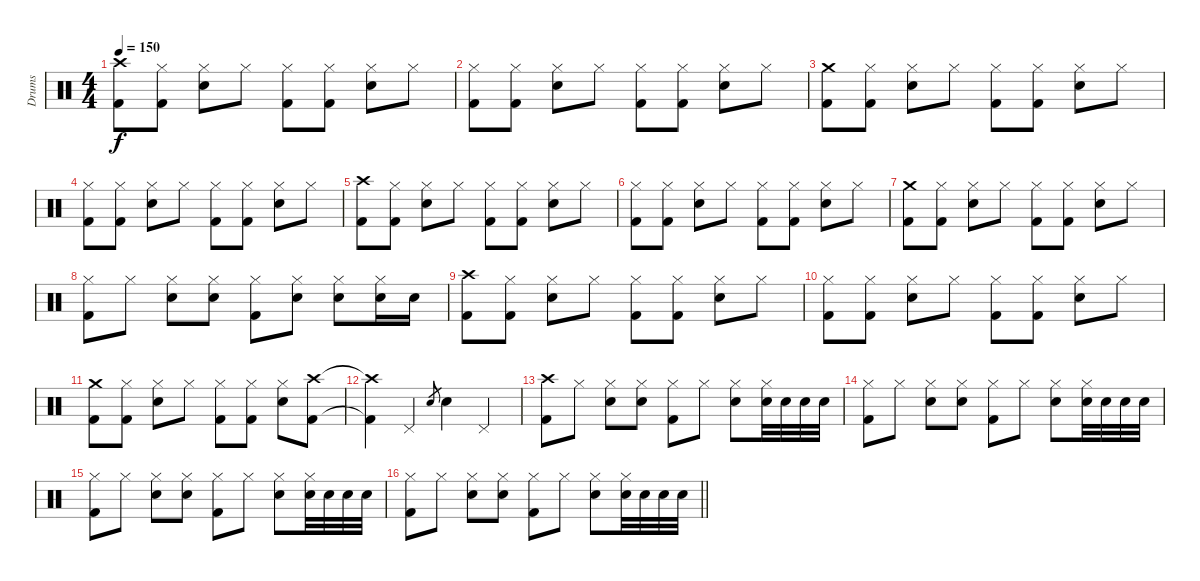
\track ("Drums" "Drums") {instrument percussion}
\staff {score}
\articulation defaults
\ts (4 4)
\tempo 150
\clef neutral
\ks c
("Kick (hit) 2" "Crash high (hit)").8{dy f} ("Kick (hit) 2" "Hi-Hat (closed)").8 ("Hi-Hat (closed)" "Snare (hit) 2").8 "Hi-Hat (closed)".8 ("Kick (hit) 2" "Hi-Hat (closed)").8 ("Kick (hit) 2" "Hi-Hat (closed)").8 ("Hi-Hat (closed)" "Snare (hit) 2").8 "Hi-Hat (closed)".8 |
("Kick (hit) 2" "Hi-Hat (closed)").8 ("Kick (hit) 2" "Hi-Hat (closed)").8 ("Hi-Hat (closed)" "Snare (hit) 2").8 "Hi-Hat (closed)".8 ("Kick (hit) 2" "Hi-Hat (closed)").8 ("Kick (hit) 2" "Hi-Hat (closed)").8 ("Hi-Hat (closed)" "Snare (hit) 2").8 "Hi-Hat (closed)".8 |
("Kick (hit) 2" "Crash medium (hit)").8 ("Kick (hit) 2" "Hi-Hat (closed)").8 ("Hi-Hat (closed)" "Snare (hit) 2").8 "Hi-Hat (closed)".8 ("Kick (hit) 2" "Hi-Hat (closed)").8 ("Kick (hit) 2" "Hi-Hat (closed)").8 ("Hi-Hat (closed)" "Snare (hit) 2").8 "Hi-Hat (closed)".8 |
("Kick (hit) 2" "Hi-Hat (closed)").8 ("Kick (hit) 2" "Hi-Hat (closed)").8 ("Hi-Hat (closed)" "Snare (hit) 2").8 "Hi-Hat (closed)".8 ("Kick (hit) 2" "Hi-Hat (closed)").8 ("Kick (hit) 2" "Hi-Hat (closed)").8 ("Hi-Hat (closed)" "Snare (hit) 2").8 "Hi-Hat (closed)".8 |
("Kick (hit) 2" "Crash high (hit)").8 ("Kick (hit) 2" "Hi-Hat (closed)").8 ("Hi-Hat (closed)" "Snare (hit) 2").8 "Hi-Hat (closed)".8 ("Kick (hit) 2" "Hi-Hat (closed)").8 ("Kick (hit) 2" "Hi-Hat (closed)").8 ("Hi-Hat (closed)" "Snare (hit) 2").8 "Hi-Hat (closed)".8 |
("Kick (hit) 2" "Hi-Hat (closed)").8 ("Kick (hit) 2" "Hi-Hat (closed)").8 ("Hi-Hat (closed)" "Snare (hit) 2").8 "Hi-Hat (closed)".8 ("Kick (hit) 2" "Hi-Hat (closed)").8 ("Kick (hit) 2" "Hi-Hat (closed)").8 ("Hi-Hat (closed)" "Snare (hit) 2").8 "Hi-Hat (closed)".8 |
("Kick (hit) 2" "Crash medium (hit)").8 ("Kick (hit) 2" "Hi-Hat (closed)").8 ("Hi-Hat (closed)" "Snare (hit) 2").8 "Hi-Hat (closed)".8 ("Kick (hit) 2" "Hi-Hat (closed)").8 ("Kick (hit) 2" "Hi-Hat (closed)").8 ("Hi-Hat (closed)" "Snare (hit) 2").8 "Hi-Hat (closed)".8 |
("Kick (hit) 2" "Hi-Hat (closed)").8 "Hi-Hat (closed)".8 ("Hi-Hat (closed)" "Snare (hit) 2").8 ("Hi-Hat (closed)" "Snare (hit) 2").8 ("Kick (hit) 2" "Hi-Hat (closed)").8 ("Hi-Hat (closed)" "Snare (hit) 2").8 ("Hi-Hat (closed)" "Snare (hit) 2").8 ("Hi-Hat (closed)" "Snare (hit) 2").16 "Snare (hit) 2".16 |
("Kick (hit) 2" "Crash high (hit)").8 ("Kick (hit) 2" "Hi-Hat (closed)").8 ("Hi-Hat (closed)" "Snare (hit) 2").8 "Hi-Hat (closed)".8 ("Kick (hit) 2" "Hi-Hat (closed)").8 ("Kick (hit) 2" "Hi-Hat (closed)").8 ("Hi-Hat (closed)" "Snare (hit) 2").8 "Hi-Hat (closed)".8 |
("Kick (hit) 2" "Hi-Hat (closed)").8 ("Kick (hit) 2" "Hi-Hat (closed)").8 ("Hi-Hat (closed)" "Snare (hit) 2").8 "Hi-Hat (closed)".8 ("Kick (hit) 2" "Hi-Hat (closed)").8 ("Kick (hit) 2" "Hi-Hat (closed)").8 ("Hi-Hat (closed)" "Snare (hit) 2").8 "Hi-Hat (closed)".8 |
("Kick (hit) 2" "Crash medium (hit)").8 ("Kick (hit) 2" "Hi-Hat (closed)").8 ("Hi-Hat (closed)" "Snare (hit) 2").8 "Hi-Hat (closed)".8 ("Kick (hit) 2" "Hi-Hat (closed)").8 ("Kick (hit) 2" "Hi-Hat (closed)").8 ("Hi-Hat (closed)" "Snare (hit) 2").8 ("Kick (hit) 2" "Crash high (hit)").8 |
("Kick (hit) 2"{t} "Crash high (hit)"{t}).4 "Pedal Hi-Hat (hit)".4 "Snare (hit) 2".8{gr} "Snare (hit) 2".4 "Pedal Hi-Hat (hit)".4 |
("Kick (hit) 2" "Crash high (hit)").8 "Hi-Hat (closed)".8 ("Hi-Hat (closed)" "Snare (hit) 2").8 ("Hi-Hat (closed)" "Snare (hit) 2").8 ("Kick (hit) 2" "Hi-Hat (closed)").8 "Hi-Hat (closed)".8 ("Hi-Hat (closed)" "Snare (hit) 2").8{beam Down} ("Hi-Hat (closed)" "Snare (hit) 2").32{beam Down} "Snare (hit) 2".32{beam Down} "Snare (hit) 2".32{beam Down} "Snare (hit) 2".32{beam Down} |
("Kick (hit) 2" "Hi-Hat (closed)").8 "Hi-Hat (closed)".8 ("Hi-Hat (closed)" "Snare (hit) 2").8 ("Hi-Hat (closed)" "Snare (hit) 2").8 ("Kick (hit) 2" "Hi-Hat (closed)").8 "Hi-Hat (closed)".8 ("Hi-Hat (closed)" "Snare (hit) 2").8 ("Hi-Hat (closed)" "Snare (hit) 2").32 "Snare (hit) 2".32 "Snare (hit) 2".32 "Snare (hit) 2".32 |
("Kick (hit) 2" "Hi-Hat (closed)").8 "Hi-Hat (closed)".8 ("Hi-Hat (closed)" "Snare (hit) 2").8 ("Hi-Hat (closed)" "Snare (hit) 2").8 ("Kick (hit) 2" "Hi-Hat (closed)").8 "Hi-Hat (closed)".8 ("Hi-Hat (closed)" "Snare (hit) 2").8 ("Hi-Hat (closed)" "Snare (hit) 2").32 "Snare (hit) 2".32 "Snare (hit) 2".32 "Snare (hit) 2".32 |
\barLineRight lightlight
("Kick (hit) 2" "Hi-Hat (closed)").8 "Hi-Hat (closed)".8 ("Hi-Hat (closed)" "Snare (hit) 2").8 ("Hi-Hat (closed)" "Snare (hit) 2").8 ("Kick (hit) 2" "Hi-Hat (closed)").8 "Hi-Hat (closed)".8 ("Hi-Hat (closed)" "Snare (hit) 2").8 ("Hi-Hat (closed)" "Snare (hit) 2").32 "Snare (hit) 2".32 "Snare (hit) 2".32 "Snare (hit) 2".32
